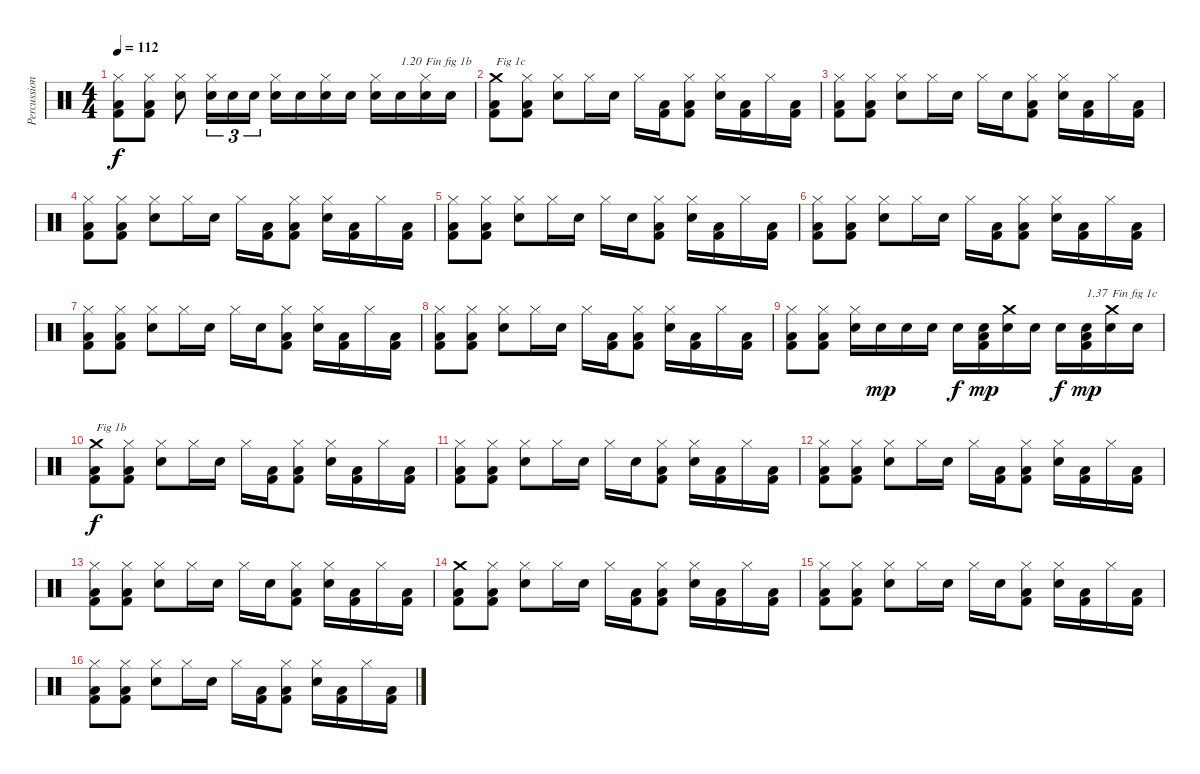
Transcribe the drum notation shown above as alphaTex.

\track ("Percussions" "Percussion") {instrument percussion}
\staff {score}
\articulation defaults
\ts (4 4)
\tempo 112
\clef neutral
\ks c
("Kick (hit) 2" "Low Floor Tom (hit)" "Hi-Hat (closed)").8{dy f} ("Kick (hit) 2" "Low Floor Tom (hit)" "Hi-Hat (closed)").8 ("Snare (hit) 2" "Hi-Hat (closed)").8 ("Snare (hit) 2" "Hi-Hat (closed)").16{tu (3 2)} "Snare (hit) 2".16{tu (3 2)} "Snare (hit) 2".16{tu (3 2)} ("Snare (hit) 2" "Hi-Hat (closed)").16 "Snare (hit) 2".16 ("Snare (hit) 2" "Hi-Hat (closed)").16 "Snare (hit) 2".16 ("Snare (hit) 2" "Hi-Hat (closed)").16 "Snare (hit) 2".16{txt "1.20"} ("Snare (hit) 2" "Hi-Hat (closed)").16{txt "Fin fig 1b"} "Snare (hit) 2".16 |
("Kick (hit) 2" "Low Floor Tom (hit)" "Crash medium (hit)").8{txt "Fig 1c"} ("Kick (hit) 2" "Low Floor Tom (hit)" "Hi-Hat (closed)").8 ("Snare (hit) 2" "Hi-Hat (closed)").8 "Hi-Hat (closed)".16 "Snare (hit) 2".16 "Hi-Hat (closed)".16 ("Kick (hit) 2" "Low Floor Tom (hit)").16 ("Kick (hit) 2" "Low Floor Tom (hit)" "Hi-Hat (closed)").8 ("Snare (hit) 2" "Hi-Hat (closed)").16 ("Kick (hit) 2" "Low Floor Tom (hit)").16 "Hi-Hat (closed)".16 ("Kick (hit) 2" "Low Floor Tom (hit)").16 |
("Kick (hit) 2" "Low Floor Tom (hit)" "Hi-Hat (closed)").8 ("Kick (hit) 2" "Low Floor Tom (hit)" "Hi-Hat (closed)").8 ("Snare (hit) 2" "Hi-Hat (closed)").8 "Hi-Hat (closed)".16 "Snare (hit) 2".16 "Hi-Hat (closed)".16 "Snare (hit) 2".16 ("Kick (hit) 2" "Low Floor Tom (hit)" "Hi-Hat (closed)").8 ("Snare (hit) 2" "Hi-Hat (closed)").16 ("Kick (hit) 2" "Low Floor Tom (hit)").16 "Hi-Hat (closed)".16 ("Kick (hit) 2" "Low Floor Tom (hit)").16 |
("Kick (hit) 2" "Low Floor Tom (hit)" "Hi-Hat (closed)").8 ("Kick (hit) 2" "Low Floor Tom (hit)" "Hi-Hat (closed)").8 ("Snare (hit) 2" "Hi-Hat (closed)").8 "Hi-Hat (closed)".16 "Snare (hit) 2".16 "Hi-Hat (closed)".16 ("Kick (hit) 2" "Low Floor Tom (hit)").16 ("Kick (hit) 2" "Low Floor Tom (hit)" "Hi-Hat (closed)").8 ("Snare (hit) 2" "Hi-Hat (closed)").16 ("Kick (hit) 2" "Low Floor Tom (hit)").16 "Hi-Hat (closed)".16 ("Kick (hit) 2" "Low Floor Tom (hit)").16 |
("Kick (hit) 2" "Low Floor Tom (hit)" "Hi-Hat (closed)").8 ("Kick (hit) 2" "Low Floor Tom (hit)" "Hi-Hat (closed)").8 ("Snare (hit) 2" "Hi-Hat (closed)").8 "Hi-Hat (closed)".16 "Snare (hit) 2".16 "Hi-Hat (closed)".16 "Snare (hit) 2".16 ("Kick (hit) 2" "Low Floor Tom (hit)" "Hi-Hat (closed)").8 ("Snare (hit) 2" "Hi-Hat (closed)").16 ("Kick (hit) 2" "Low Floor Tom (hit)").16 "Hi-Hat (closed)".16 ("Kick (hit) 2" "Low Floor Tom (hit)").16 |
("Kick (hit) 2" "Low Floor Tom (hit)" "Hi-Hat (closed)").8 ("Kick (hit) 2" "Low Floor Tom (hit)" "Hi-Hat (closed)").8 ("Snare (hit) 2" "Hi-Hat (closed)").8 "Hi-Hat (closed)".16 "Snare (hit) 2".16 "Hi-Hat (closed)".16 ("Kick (hit) 2" "Low Floor Tom (hit)").16 ("Kick (hit) 2" "Low Floor Tom (hit)" "Hi-Hat (closed)").8 ("Snare (hit) 2" "Hi-Hat (closed)").16 ("Kick (hit) 2" "Low Floor Tom (hit)").16 "Hi-Hat (closed)".16 ("Kick (hit) 2" "Low Floor Tom (hit)").16 |
("Kick (hit) 2" "Low Floor Tom (hit)" "Hi-Hat (closed)").8 ("Kick (hit) 2" "Low Floor Tom (hit)" "Hi-Hat (closed)").8 ("Snare (hit) 2" "Hi-Hat (closed)").8 "Hi-Hat (closed)".16 "Snare (hit) 2".16 "Hi-Hat (closed)".16 "Snare (hit) 2".16 ("Kick (hit) 2" "Low Floor Tom (hit)" "Hi-Hat (closed)").8 ("Snare (hit) 2" "Hi-Hat (closed)").16 ("Kick (hit) 2" "Low Floor Tom (hit)").16 "Hi-Hat (closed)".16 ("Kick (hit) 2" "Low Floor Tom (hit)").16 |
("Kick (hit) 2" "Low Floor Tom (hit)" "Hi-Hat (closed)").8 ("Kick (hit) 2" "Low Floor Tom (hit)" "Hi-Hat (closed)").8 ("Snare (hit) 2" "Hi-Hat (closed)").8 "Hi-Hat (closed)".16 "Snare (hit) 2".16 "Hi-Hat (closed)".16 ("Kick (hit) 2" "Low Floor Tom (hit)").16 ("Kick (hit) 2" "Low Floor Tom (hit)" "Hi-Hat (closed)").8 ("Snare (hit) 2" "Hi-Hat (closed)").16 ("Kick (hit) 2" "Low Floor Tom (hit)").16 "Hi-Hat (closed)".16 ("Kick (hit) 2" "Low Floor Tom (hit)").16 |
("Kick (hit) 2" "Low Floor Tom (hit)" "Hi-Hat (closed)").8 ("Kick (hit) 2" "Low Floor Tom (hit)" "Hi-Hat (closed)").8 ("Snare (hit) 2" "Hi-Hat (closed)").16 "Snare (hit) 2".16{dy mp} "Snare (hit) 2".16 "Snare (hit) 2".16 "Snare (hit) 2".16{dy f} ("Kick (hit) 2" "Low Floor Tom (hit)" "Snare (hit) 2").16{dy mp} ("Snare (hit) 2" "Crash medium (hit)").16 "Snare (hit) 2".16 "Snare (hit) 2".16{dy f} ("Kick (hit) 2" "Low Floor Tom (hit)" "Snare (hit) 2").16{txt "1.37" dy mp} ("Snare (hit) 2" "Crash medium (hit)").16{txt "Fin fig 1c"} "Snare (hit) 2".16 |
("Kick (hit) 2" "Low Floor Tom (hit)" "Crash medium (hit)").8{txt "Fig 1b" dy f} ("Kick (hit) 2" "Low Floor Tom (hit)" "Hi-Hat (closed)").8 ("Snare (hit) 2" "Hi-Hat (closed)").8 "Hi-Hat (closed)".16 "Snare (hit) 2".16 "Hi-Hat (closed)".16 ("Kick (hit) 2" "Low Floor Tom (hit)").16 ("Kick (hit) 2" "Low Floor Tom (hit)" "Hi-Hat (closed)").8 ("Snare (hit) 2" "Hi-Hat (closed)").16 ("Kick (hit) 2" "Low Floor Tom (hit)").16 "Hi-Hat (closed)".16 ("Kick (hit) 2" "Low Floor Tom (hit)").16 |
("Kick (hit) 2" "Low Floor Tom (hit)" "Hi-Hat (closed)").8 ("Kick (hit) 2" "Low Floor Tom (hit)" "Hi-Hat (closed)").8 ("Snare (hit) 2" "Hi-Hat (closed)").8 "Hi-Hat (closed)".16 "Snare (hit) 2".16 "Hi-Hat (closed)".16 "Snare (hit) 2".16 ("Kick (hit) 2" "Low Floor Tom (hit)" "Hi-Hat (closed)").8 ("Snare (hit) 2" "Hi-Hat (closed)").16 ("Kick (hit) 2" "Low Floor Tom (hit)").16 "Hi-Hat (closed)".16 ("Kick (hit) 2" "Low Floor Tom (hit)").16 |
("Kick (hit) 2" "Low Floor Tom (hit)" "Hi-Hat (closed)").8 ("Kick (hit) 2" "Low Floor Tom (hit)" "Hi-Hat (closed)").8 ("Snare (hit) 2" "Hi-Hat (closed)").8 "Hi-Hat (closed)".16 "Snare (hit) 2".16 "Hi-Hat (closed)".16 ("Kick (hit) 2" "Low Floor Tom (hit)").16 ("Kick (hit) 2" "Low Floor Tom (hit)" "Hi-Hat (closed)").8 ("Snare (hit) 2" "Hi-Hat (closed)").16 ("Kick (hit) 2" "Low Floor Tom (hit)").16 "Hi-Hat (closed)".16 ("Kick (hit) 2" "Low Floor Tom (hit)").16 |
("Kick (hit) 2" "Low Floor Tom (hit)" "Hi-Hat (closed)").8 ("Kick (hit) 2" "Low Floor Tom (hit)" "Hi-Hat (closed)").8 ("Snare (hit) 2" "Hi-Hat (closed)").8 "Hi-Hat (closed)".16 "Snare (hit) 2".16 "Hi-Hat (closed)".16 "Snare (hit) 2".16 ("Kick (hit) 2" "Low Floor Tom (hit)" "Hi-Hat (closed)").8 ("Snare (hit) 2" "Hi-Hat (closed)").16 ("Kick (hit) 2" "Low Floor Tom (hit)").16 "Hi-Hat (closed)".16 ("Kick (hit) 2" "Low Floor Tom (hit)").16 |
("Kick (hit) 2" "Low Floor Tom (hit)" "Crash medium (hit)").8 ("Kick (hit) 2" "Low Floor Tom (hit)" "Hi-Hat (closed)").8 ("Snare (hit) 2" "Hi-Hat (closed)").8 "Hi-Hat (closed)".16 "Snare (hit) 2".16 "Hi-Hat (closed)".16 ("Kick (hit) 2" "Low Floor Tom (hit)").16 ("Kick (hit) 2" "Low Floor Tom (hit)" "Hi-Hat (closed)").8 ("Snare (hit) 2" "Hi-Hat (closed)").16 ("Kick (hit) 2" "Low Floor Tom (hit)").16 "Hi-Hat (closed)".16 ("Kick (hit) 2" "Low Floor Tom (hit)").16 |
("Kick (hit) 2" "Low Floor Tom (hit)" "Hi-Hat (closed)").8 ("Kick (hit) 2" "Low Floor Tom (hit)" "Hi-Hat (closed)").8 ("Snare (hit) 2" "Hi-Hat (closed)").8 "Hi-Hat (closed)".16 "Snare (hit) 2".16 "Hi-Hat (closed)".16 "Snare (hit) 2".16 ("Kick (hit) 2" "Low Floor Tom (hit)" "Hi-Hat (closed)").8 ("Snare (hit) 2" "Hi-Hat (closed)").16 ("Kick (hit) 2" "Low Floor Tom (hit)").16 "Hi-Hat (closed)".16 ("Kick (hit) 2" "Low Floor Tom (hit)").16 |
("Kick (hit) 2" "Low Floor Tom (hit)" "Hi-Hat (closed)").8 ("Kick (hit) 2" "Low Floor Tom (hit)" "Hi-Hat (closed)").8 ("Snare (hit) 2" "Hi-Hat (closed)").8 "Hi-Hat (closed)".16 "Snare (hit) 2".16 "Hi-Hat (closed)".16 ("Kick (hit) 2" "Low Floor Tom (hit)").16 ("Kick (hit) 2" "Low Floor Tom (hit)" "Hi-Hat (closed)").8 ("Snare (hit) 2" "Hi-Hat (closed)").16 ("Kick (hit) 2" "Low Floor Tom (hit)").16 "Hi-Hat (closed)".16 ("Kick (hit) 2" "Low Floor Tom (hit)").16
